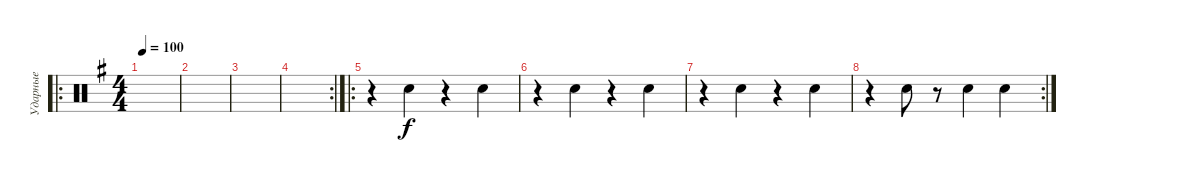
\track ("Ударные" "Ударные") {instrument percussion}
\staff {score}
\articulation defaults
\ro
\ts (4 4)
\tempo 100
\clef neutral
\ks eminor
|
|
|
\rc 2
|
\ro
r.4 "Snare (hit) 2".4 r.4 "Snare (hit) 2".4 |
r.4 "Snare (hit) 2".4 r.4 "Snare (hit) 2".4 |
r.4 "Snare (hit) 2".4 r.4 "Snare (hit) 2".4 |
\rc 2
r.4 "Snare (hit) 2".8 r.8 "Snare (hit) 2".4 "Snare (hit) 2".4
